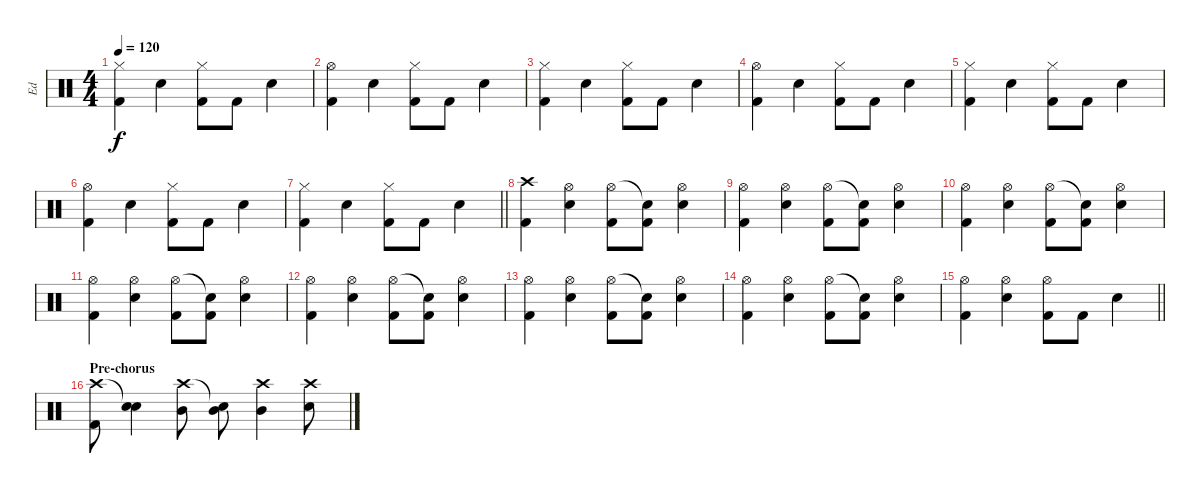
\track ("Ed" "Ed") {instrument percussion}
\staff {score}
\articulation defaults
\ts (4 4)
\tempo 120
\clef neutral
\ks c
("Hi-Hat (closed)" "Kick (hit) 2").4{dy f} "Snare (hit) 2".4 ("Hi-Hat (closed)" "Kick (hit) 2").8 "Kick (hit) 2".8 "Snare (hit) 2".4 |
("Hi-Hat (open)" "Kick (hit) 2").4 "Snare (hit) 2".4 ("Hi-Hat (closed)" "Kick (hit) 2").8 "Kick (hit) 2".8 "Snare (hit) 2".4 |
("Hi-Hat (closed)" "Kick (hit) 2").4 "Snare (hit) 2".4 ("Hi-Hat (closed)" "Kick (hit) 2").8 "Kick (hit) 2".8 "Snare (hit) 2".4 |
("Hi-Hat (open)" "Kick (hit) 2").4 "Snare (hit) 2".4 ("Hi-Hat (closed)" "Kick (hit) 2").8 "Kick (hit) 2".8 "Snare (hit) 2".4 |
("Hi-Hat (closed)" "Kick (hit) 2").4 "Snare (hit) 2".4 ("Hi-Hat (closed)" "Kick (hit) 2").8 "Kick (hit) 2".8 "Snare (hit) 2".4 |
("Hi-Hat (open)" "Kick (hit) 2").4 "Snare (hit) 2".4 ("Hi-Hat (closed)" "Kick (hit) 2").8 "Kick (hit) 2".8 "Snare (hit) 2".4 |
\barLineRight lightlight
("Hi-Hat (closed)" "Kick (hit) 2").4 "Snare (hit) 2".4 ("Hi-Hat (closed)" "Kick (hit) 2").8 "Kick (hit) 2".8 "Snare (hit) 2".4 |
\section ("" "")
("Crash high (hit)" "Kick (hit) 2").4 ("Hi-Hat (open)" "Snare (hit) 2").4 ("Hi-Hat (open)" "Kick (hit) 2").8 ("Snare (hit)"{t} "Kick (hit) 2").8 ("Hi-Hat (open)" "Snare (hit) 2").4 |
("Hi-Hat (open)" "Kick (hit) 2").4 ("Hi-Hat (open)" "Snare (hit) 2").4 ("Hi-Hat (open)" "Kick (hit) 2").8 ("Snare (hit)"{t} "Kick (hit) 2").8 ("Hi-Hat (open)" "Snare (hit) 2").4 |
("Hi-Hat (open)" "Kick (hit) 2").4 ("Hi-Hat (open)" "Snare (hit) 2").4 ("Hi-Hat (open)" "Kick (hit) 2").8 ("Snare (hit)"{t} "Kick (hit) 2").8 ("Hi-Hat (open)" "Snare (hit) 2").4 |
("Hi-Hat (open)" "Kick (hit) 2").4 ("Hi-Hat (open)" "Snare (hit) 2").4 ("Hi-Hat (open)" "Kick (hit) 2").8 ("Snare (hit)"{t} "Kick (hit) 2").8 ("Hi-Hat (open)" "Snare (hit) 2").4 |
("Hi-Hat (open)" "Kick (hit) 2").4 ("Hi-Hat (open)" "Snare (hit) 2").4 ("Hi-Hat (open)" "Kick (hit) 2").8 ("Snare (hit)"{t} "Kick (hit) 2").8 ("Hi-Hat (open)" "Snare (hit) 2").4 |
("Hi-Hat (open)" "Kick (hit) 2").4 ("Hi-Hat (open)" "Snare (hit) 2").4 ("Hi-Hat (open)" "Kick (hit) 2").8 ("Snare (hit)"{t} "Kick (hit) 2").8 ("Hi-Hat (open)" "Snare (hit) 2").4 |
("Hi-Hat (open)" "Kick (hit) 2").4 ("Hi-Hat (open)" "Snare (hit) 2").4 ("Hi-Hat (open)" "Kick (hit) 2").8 ("Snare (hit)"{t} "Kick (hit) 2").8 ("Hi-Hat (open)" "Snare (hit) 2").4 |
\barLineRight lightlight
("Hi-Hat (open)" "Kick (hit) 2").4 ("Hi-Hat (open)" "Snare (hit) 2").4 ("Hi-Hat (open)" "Kick (hit) 2").8 "Kick (hit) 2".8 "Snare (hit) 2".4 |
\section ("" "Pre-chorus")
("Crash high (hit)" "Kick (hit) 2").8 ("Snare (hit)"{t} "Snare (hit) 2").4 ("Crash high (hit)" "Mid Tom (hit)").8 ("Snare (hit)"{t} "Mid Tom (hit)").8 ("Crash high (hit)" "Mid Tom (hit)").4 ("Crash high (hit)" "Snare (hit) 2").8
